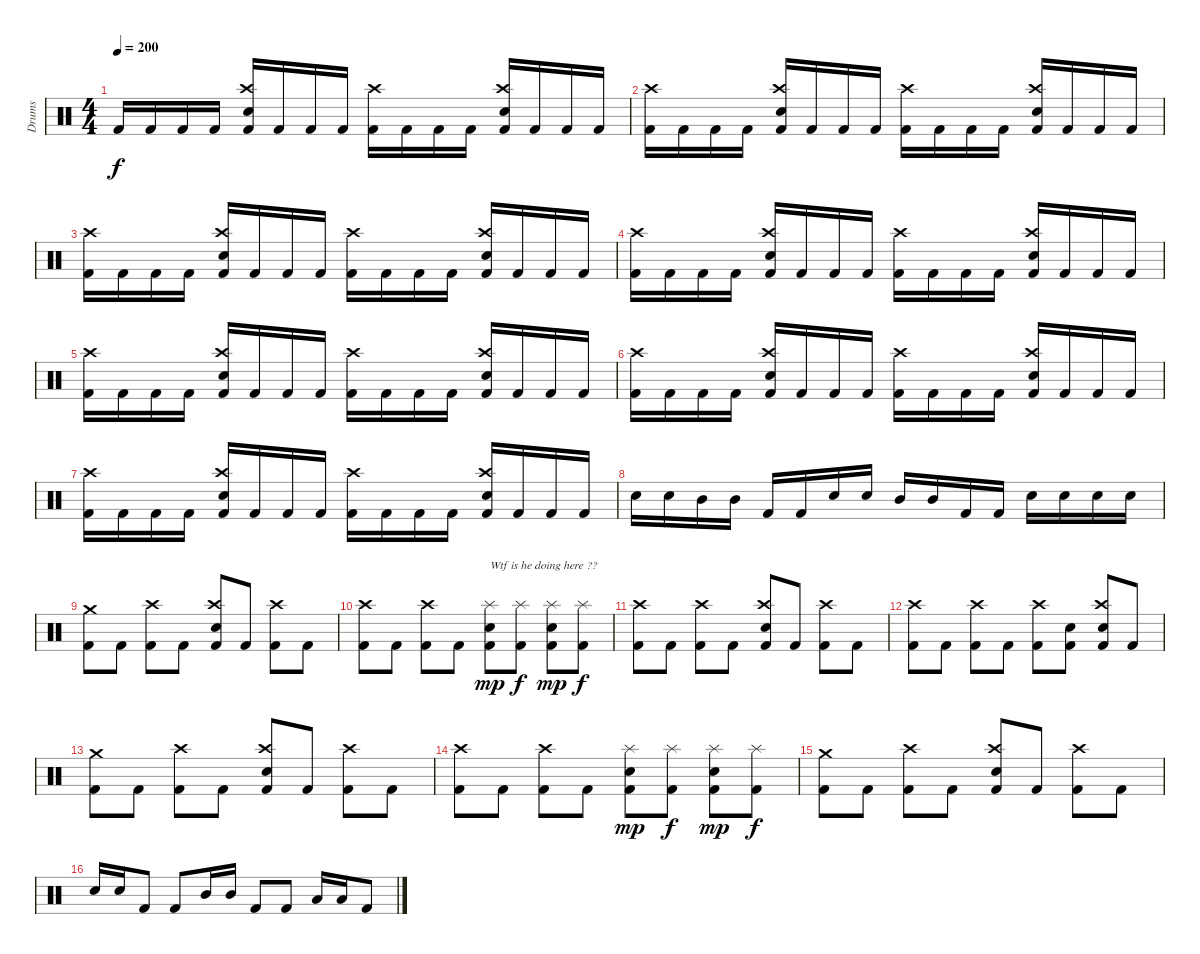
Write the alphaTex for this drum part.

\track ("Drums" "Drums") {instrument percussion}
\staff {score}
\articulation defaults
\ts (4 4)
\tempo 200
\clef neutral
\ks c "Kick (hit) 2".16{dy f} "Kick (hit) 2".16 "Kick (hit) 2".16 "Kick (hit) 2".16
("Crash high (hit)" "Snare (hit) 2" "Kick (hit) 2").16 "Kick (hit) 2".16 "Kick (hit) 2".16 "Kick (hit) 2".16 ("Crash high (hit)" "Kick (hit) 2").16 "Kick (hit) 2".16 "Kick (hit) 2".16 "Kick (hit) 2".16 ("Crash high (hit)" "Snare (hit) 2" "Kick (hit) 2").16 "Kick (hit) 2".16 "Kick (hit) 2".16 "Kick (hit) 2".16 |
("Crash high (hit)" "Kick (hit) 2").16 "Kick (hit) 2".16 "Kick (hit) 2".16 "Kick (hit) 2".16 ("Crash high (hit)" "Snare (hit) 2" "Kick (hit) 2").16 "Kick (hit) 2".16 "Kick (hit) 2".16 "Kick (hit) 2".16 ("Crash high (hit)" "Kick (hit) 2").16 "Kick (hit) 2".16 "Kick (hit) 2".16 "Kick (hit) 2".16 ("Crash high (hit)" "Snare (hit) 2" "Kick (hit) 2").16 "Kick (hit) 2".16 "Kick (hit) 2".16 "Kick (hit) 2".16 |
("Crash high (hit)" "Kick (hit) 2").16 "Kick (hit) 2".16 "Kick (hit) 2".16 "Kick (hit) 2".16 ("Crash high (hit)" "Snare (hit) 2" "Kick (hit) 2").16 "Kick (hit) 2".16 "Kick (hit) 2".16 "Kick (hit) 2".16 ("Crash high (hit)" "Kick (hit) 2").16 "Kick (hit) 2".16 "Kick (hit) 2".16 "Kick (hit) 2".16 ("Crash high (hit)" "Snare (hit) 2" "Kick (hit) 2").16 "Kick (hit) 2".16 "Kick (hit) 2".16 "Kick (hit) 2".16 |
("Crash high (hit)" "Kick (hit) 2").16 "Kick (hit) 2".16 "Kick (hit) 2".16 "Kick (hit) 2".16 ("Crash high (hit)" "Snare (hit) 2" "Kick (hit) 2").16 "Kick (hit) 2".16 "Kick (hit) 2".16 "Kick (hit) 2".16 ("Crash high (hit)" "Kick (hit) 2").16 "Kick (hit) 2".16 "Kick (hit) 2".16 "Kick (hit) 2".16 ("Crash high (hit)" "Snare (hit) 2" "Kick (hit) 2").16 "Kick (hit) 2".16 "Kick (hit) 2".16 "Kick (hit) 2".16 |
("Crash high (hit)" "Kick (hit) 2").16 "Kick (hit) 2".16 "Kick (hit) 2".16 "Kick (hit) 2".16 ("Crash high (hit)" "Snare (hit) 2" "Kick (hit) 2").16 "Kick (hit) 2".16 "Kick (hit) 2".16 "Kick (hit) 2".16 ("Crash high (hit)" "Kick (hit) 2").16 "Kick (hit) 2".16 "Kick (hit) 2".16 "Kick (hit) 2".16 ("Crash high (hit)" "Snare (hit) 2" "Kick (hit) 2").16 "Kick (hit) 2".16 "Kick (hit) 2".16 "Kick (hit) 2".16 |
("Crash high (hit)" "Kick (hit) 2").16 "Kick (hit) 2".16 "Kick (hit) 2".16 "Kick (hit) 2".16 ("Crash high (hit)" "Snare (hit) 2" "Kick (hit) 2").16 "Kick (hit) 2".16 "Kick (hit) 2".16 "Kick (hit) 2".16 ("Crash high (hit)" "Kick (hit) 2").16 "Kick (hit) 2".16 "Kick (hit) 2".16 "Kick (hit) 2".16 ("Crash high (hit)" "Snare (hit) 2" "Kick (hit) 2").16 "Kick (hit) 2".16 "Kick (hit) 2".16 "Kick (hit) 2".16 |
("Crash high (hit)" "Kick (hit) 2").16 "Kick (hit) 2".16 "Kick (hit) 2".16 "Kick (hit) 2".16 ("Crash high (hit)" "Snare (hit) 2" "Kick (hit) 2").16 "Kick (hit) 2".16 "Kick (hit) 2".16 "Kick (hit) 2".16 ("Crash high (hit)" "Kick (hit) 2").16 "Kick (hit) 2".16 "Kick (hit) 2".16 "Kick (hit) 2".16 ("Crash high (hit)" "Snare (hit) 2" "Kick (hit) 2").16 "Kick (hit) 2".16 "Kick (hit) 2".16 "Kick (hit) 2".16 |
"Snare (hit) 2".16 "Snare (hit) 2".16 "Mid Tom (hit)".16 "Mid Tom (hit)".16 "Kick (hit) 2".16 "Kick (hit) 2".16 "Snare (hit) 2".16 "Snare (hit) 2".16 "Mid Tom (hit)".16 "Mid Tom (hit)".16 "Kick (hit) 2".16 "Kick (hit) 2".16 "Snare (hit) 2".16 "Snare (hit) 2".16 "Snare (hit) 2".16 "Snare (hit) 2".16 |
("Crash medium (hit)" "Kick (hit) 2").8 "Kick (hit) 2".8 ("Crash high (hit)" "Kick (hit) 2").8 "Kick (hit) 2".8 ("Crash high (hit)" "Snare (hit) 2" "Kick (hit) 2").8 "Kick (hit) 2".8 ("Crash high (hit)" "Kick (hit) 2").8 "Kick (hit) 2".8 |
("Crash high (hit)" "Kick (hit) 2").8 "Kick (hit) 2".8 ("Crash high (hit)" "Kick (hit) 2").8 "Kick (hit) 2".8 ("Splash (hit)" "Snare (hit) 2" "Kick (hit) 2").8{txt "Wtf is he doing here ??" dy mp} ("Splash (hit)" "Kick (hit) 2").8{dy f} ("Splash (hit)" "Snare (hit) 2" "Kick (hit) 2").8{dy mp} ("Splash (hit)" "Kick (hit) 2").8{dy f} |
("Crash high (hit)" "Kick (hit) 2").8 "Kick (hit) 2".8 ("Crash high (hit)" "Kick (hit) 2").8 "Kick (hit) 2".8 ("Crash high (hit)" "Snare (hit) 2" "Kick (hit) 2").8 "Kick (hit) 2".8 ("Crash high (hit)" "Kick (hit) 2").8 "Kick (hit) 2".8 |
("Crash high (hit)" "Kick (hit) 2").8 "Kick (hit) 2".8 ("Crash high (hit)" "Kick (hit) 2").8 "Kick (hit) 2".8 ("Crash high (hit)" "Kick (hit) 2").8 ("Snare (hit) 2" "Kick (hit) 2").8 ("Crash high (hit)" "Snare (hit) 2" "Kick (hit) 2").8 "Kick (hit) 2".8 |
("Crash medium (hit)" "Kick (hit) 2").8 "Kick (hit) 2".8 ("Crash high (hit)" "Kick (hit) 2").8 "Kick (hit) 2".8 ("Crash high (hit)" "Snare (hit) 2" "Kick (hit) 2").8 "Kick (hit) 2".8 ("Crash high (hit)" "Kick (hit) 2").8 "Kick (hit) 2".8 |
("Crash high (hit)" "Kick (hit) 2").8 "Kick (hit) 2".8 ("Crash high (hit)" "Kick (hit) 2").8 "Kick (hit) 2".8 ("Splash (hit)" "Snare (hit) 2" "Kick (hit) 2").8{dy mp} ("Splash (hit)" "Kick (hit) 2").8{dy f} ("Splash (hit)" "Snare (hit) 2" "Kick (hit) 2").8{dy mp} ("Splash (hit)" "Kick (hit) 2").8{dy f} |
("Crash medium (hit)" "Kick (hit) 2").8 "Kick (hit) 2".8 ("Crash high (hit)" "Kick (hit) 2").8 "Kick (hit) 2".8 ("Crash high (hit)" "Snare (hit) 2" "Kick (hit) 2").8 "Kick (hit) 2".8 ("Crash high (hit)" "Kick (hit) 2").8 "Kick (hit) 2".8 |
"Snare (hit) 2".16 "Snare (hit) 2".16 "Kick (hit) 2".8 "Kick (hit) 2".8 "Mid Tom (hit)".16 "Mid Tom (hit)".16 "Kick (hit) 2".8 "Kick (hit) 2".8 "Low Tom (hit)".16 "Low Tom (hit)".16 "Kick (hit) 2".8
